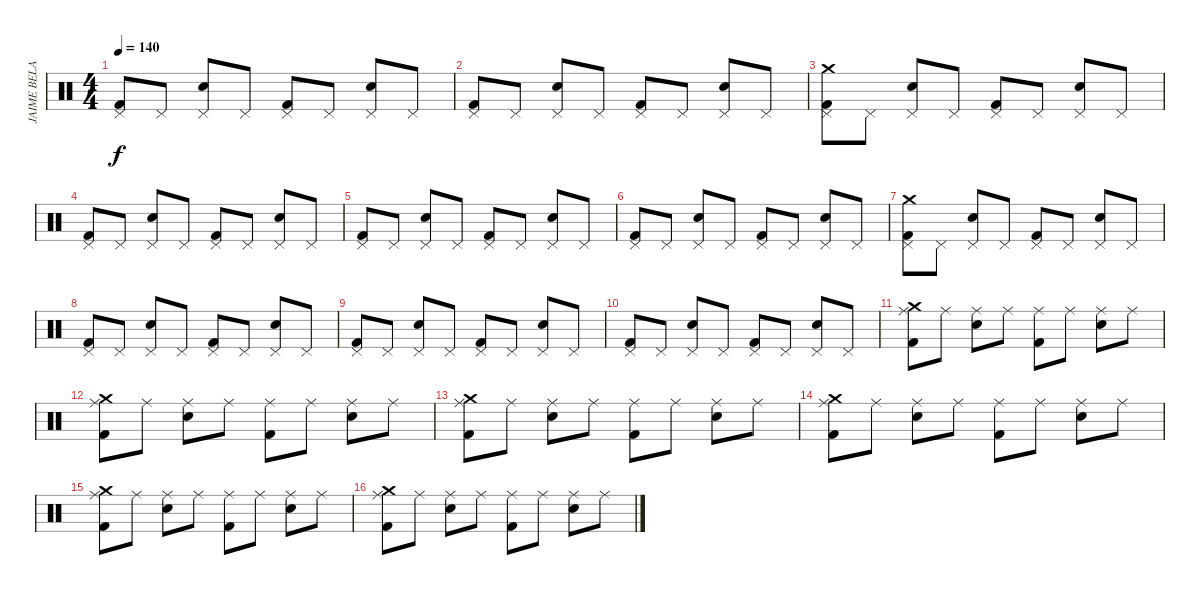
\track ("JAIME BELAUSTEGUI" "JAIME BELA") {instrument percussion}
\staff {score}
\articulation defaults
\ts (4 4)
\tempo 140
\clef neutral
\ks c
("Kick (hit) 2" "Pedal Hi-Hat (hit)").8{dy f} "Pedal Hi-Hat (hit)".8 ("Electric Snare (hit)" "Pedal Hi-Hat (hit)").8 "Pedal Hi-Hat (hit)".8 ("Kick (hit) 2" "Pedal Hi-Hat (hit)").8 "Pedal Hi-Hat (hit)".8 ("Electric Snare (hit)" "Pedal Hi-Hat (hit)").8 "Pedal Hi-Hat (hit)".8 |
("Kick (hit) 2" "Pedal Hi-Hat (hit)").8 "Pedal Hi-Hat (hit)".8 ("Electric Snare (hit)" "Pedal Hi-Hat (hit)").8 "Pedal Hi-Hat (hit)".8 ("Kick (hit) 2" "Pedal Hi-Hat (hit)").8 "Pedal Hi-Hat (hit)".8 ("Electric Snare (hit)" "Pedal Hi-Hat (hit)").8 "Pedal Hi-Hat (hit)".8 |
("Kick (hit) 2" "Crash medium (hit)" "Pedal Hi-Hat (hit)").8 "Pedal Hi-Hat (hit)".8 ("Electric Snare (hit)" "Pedal Hi-Hat (hit)").8 "Pedal Hi-Hat (hit)".8 ("Kick (hit) 2" "Pedal Hi-Hat (hit)").8 "Pedal Hi-Hat (hit)".8 ("Electric Snare (hit)" "Pedal Hi-Hat (hit)").8 "Pedal Hi-Hat (hit)".8 |
("Kick (hit) 2" "Pedal Hi-Hat (hit)").8 "Pedal Hi-Hat (hit)".8 ("Electric Snare (hit)" "Pedal Hi-Hat (hit)").8 "Pedal Hi-Hat (hit)".8 ("Kick (hit) 2" "Pedal Hi-Hat (hit)").8 "Pedal Hi-Hat (hit)".8 ("Electric Snare (hit)" "Pedal Hi-Hat (hit)").8 "Pedal Hi-Hat (hit)".8 |
("Kick (hit) 2" "Pedal Hi-Hat (hit)").8 "Pedal Hi-Hat (hit)".8 ("Electric Snare (hit)" "Pedal Hi-Hat (hit)").8 "Pedal Hi-Hat (hit)".8 ("Kick (hit) 2" "Pedal Hi-Hat (hit)").8 "Pedal Hi-Hat (hit)".8 ("Electric Snare (hit)" "Pedal Hi-Hat (hit)").8 "Pedal Hi-Hat (hit)".8 |
("Kick (hit) 2" "Pedal Hi-Hat (hit)").8 "Pedal Hi-Hat (hit)".8 ("Electric Snare (hit)" "Pedal Hi-Hat (hit)").8 "Pedal Hi-Hat (hit)".8 ("Kick (hit) 2" "Pedal Hi-Hat (hit)").8 "Pedal Hi-Hat (hit)".8 ("Electric Snare (hit)" "Pedal Hi-Hat (hit)").8 "Pedal Hi-Hat (hit)".8 |
("Kick (hit) 2" "Crash medium (hit)" "Pedal Hi-Hat (hit)").8 "Pedal Hi-Hat (hit)".8 ("Electric Snare (hit)" "Pedal Hi-Hat (hit)").8 "Pedal Hi-Hat (hit)".8 ("Kick (hit) 2" "Pedal Hi-Hat (hit)").8 "Pedal Hi-Hat (hit)".8 ("Electric Snare (hit)" "Pedal Hi-Hat (hit)").8 "Pedal Hi-Hat (hit)".8 |
("Kick (hit) 2" "Pedal Hi-Hat (hit)").8 "Pedal Hi-Hat (hit)".8 ("Electric Snare (hit)" "Pedal Hi-Hat (hit)").8 "Pedal Hi-Hat (hit)".8 ("Kick (hit) 2" "Pedal Hi-Hat (hit)").8 "Pedal Hi-Hat (hit)".8 ("Electric Snare (hit)" "Pedal Hi-Hat (hit)").8 "Pedal Hi-Hat (hit)".8 |
("Kick (hit) 2" "Pedal Hi-Hat (hit)").8 "Pedal Hi-Hat (hit)".8 ("Electric Snare (hit)" "Pedal Hi-Hat (hit)").8 "Pedal Hi-Hat (hit)".8 ("Kick (hit) 2" "Pedal Hi-Hat (hit)").8 "Pedal Hi-Hat (hit)".8 ("Electric Snare (hit)" "Pedal Hi-Hat (hit)").8 "Pedal Hi-Hat (hit)".8 |
("Kick (hit) 2" "Pedal Hi-Hat (hit)").8 "Pedal Hi-Hat (hit)".8 ("Electric Snare (hit)" "Pedal Hi-Hat (hit)").8 "Pedal Hi-Hat (hit)".8 ("Kick (hit) 2" "Pedal Hi-Hat (hit)").8 "Pedal Hi-Hat (hit)".8 ("Electric Snare (hit)" "Pedal Hi-Hat (hit)").8 "Pedal Hi-Hat (hit)".8 |
("Kick (hit) 2" "Crash medium (hit)" "Ride (middle)").8 "Ride (middle)".8 ("Electric Snare (hit)" "Ride (middle)").8 "Ride (middle)".8 ("Kick (hit) 2" "Ride (middle)").8 "Ride (middle)".8 ("Electric Snare (hit)" "Ride (middle)").8 "Ride (middle)".8 |
("Kick (hit) 2" "Crash medium (hit)" "Ride (middle)").8 "Ride (middle)".8 ("Electric Snare (hit)" "Ride (middle)").8 "Ride (middle)".8 ("Kick (hit) 2" "Ride (middle)").8 "Ride (middle)".8 ("Electric Snare (hit)" "Ride (middle)").8 "Ride (middle)".8 |
("Kick (hit) 2" "Crash medium (hit)" "Ride (middle)").8 "Ride (middle)".8 ("Electric Snare (hit)" "Ride (middle)").8 "Ride (middle)".8 ("Kick (hit) 2" "Ride (middle)").8 "Ride (middle)".8 ("Electric Snare (hit)" "Ride (middle)").8 "Ride (middle)".8 |
("Kick (hit) 2" "Crash medium (hit)" "Ride (middle)").8 "Ride (middle)".8 ("Electric Snare (hit)" "Ride (middle)").8 "Ride (middle)".8 ("Kick (hit) 2" "Ride (middle)").8 "Ride (middle)".8 ("Electric Snare (hit)" "Ride (middle)").8 "Ride (middle)".8 |
("Kick (hit) 2" "Crash medium (hit)" "Ride (middle)").8 "Ride (middle)".8 ("Electric Snare (hit)" "Ride (middle)").8 "Ride (middle)".8 ("Kick (hit) 2" "Ride (middle)").8 "Ride (middle)".8 ("Electric Snare (hit)" "Ride (middle)").8 "Ride (middle)".8 |
("Kick (hit) 2" "Crash medium (hit)" "Ride (middle)").8 "Ride (middle)".8 ("Electric Snare (hit)" "Ride (middle)").8 "Ride (middle)".8 ("Kick (hit) 2" "Ride (middle)").8 "Ride (middle)".8 ("Electric Snare (hit)" "Ride (middle)").8 "Ride (middle)".8
